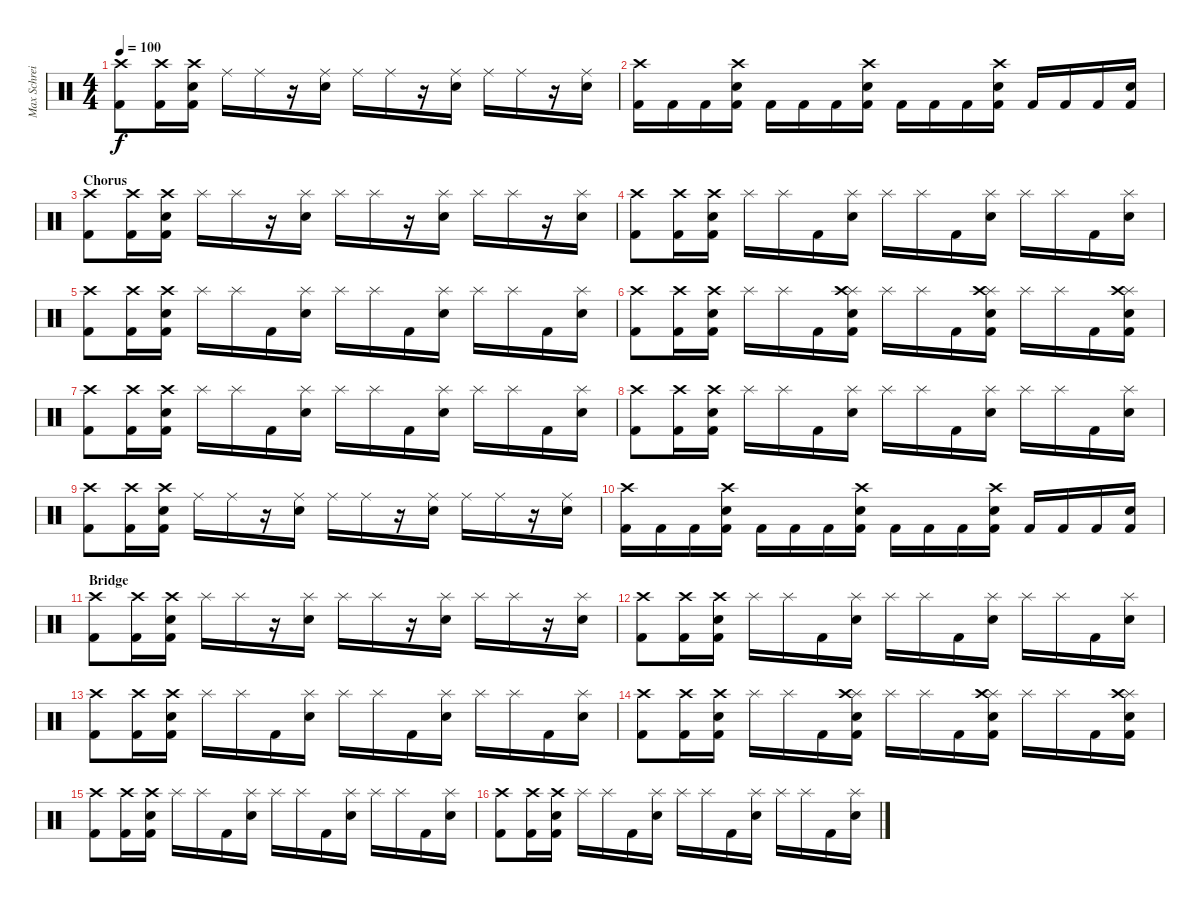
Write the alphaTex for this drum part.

\track ("Max Schreiber " "Max Schrei") {instrument percussion}
\staff {score}
\articulation defaults
\ts (4 4)
\tempo 100
\clef neutral
\ks c
("Crash high (hit)" "Kick (hit) 2").8{dy f} ("Crash high (hit)" "Kick (hit) 2").16 ("Crash high (hit)" "Electric Snare (hit)" "Kick (hit) 2").16 "Ride (middle)".16 "Ride (middle)".16 r.16 ("Ride (middle)" "Electric Snare (hit)").16 "Ride (middle)".16 "Ride (middle)".16 r.16 ("Ride (middle)" "Electric Snare (hit)").16 "Ride (middle)".16 "Ride (middle)".16 r.16 ("Ride (middle)" "Electric Snare (hit)").16 |
("Crash high (hit)" "Kick (hit) 2").16 "Kick (hit) 2".16 "Kick (hit) 2".16 ("Crash high (hit)" "Electric Snare (hit)" "Kick (hit) 2").16 "Kick (hit) 2".16 "Kick (hit) 2".16 "Kick (hit) 2".16 ("Crash high (hit)" "Electric Snare (hit)" "Kick (hit) 2").16 "Kick (hit) 2".16 "Kick (hit) 2".16 "Kick (hit) 2".16 ("Crash high (hit)" "Electric Snare (hit)" "Kick (hit) 2").16 "Kick (hit) 2".16 "Kick (hit) 2".16 "Kick (hit) 2".16 ("Electric Snare (hit)" "Kick (hit) 2").16 |
\section ("" "Chorus")
("Crash high (hit)" "Kick (hit) 2").8 ("Crash high (hit)" "Kick (hit) 2").16 ("Crash high (hit)" "Electric Snare (hit)" "Kick (hit) 2").16 "Splash (hit)".16 "Splash (hit)".16 r.16 ("Splash (hit)" "Electric Snare (hit)").16 "Splash (hit)".16 "Splash (hit)".16 r.16 ("Splash (hit)" "Electric Snare (hit)").16 "Splash (hit)".16 "Splash (hit)".16 r.16 ("Splash (hit)" "Electric Snare (hit)").16 |
("Crash high (hit)" "Kick (hit) 2").8 ("Crash high (hit)" "Kick (hit) 2").16 ("Crash high (hit)" "Electric Snare (hit)" "Kick (hit) 2").16 "Splash (hit)".16 "Splash (hit)".16 "Kick (hit) 2".16 ("Splash (hit)" "Electric Snare (hit)").16 "Splash (hit)".16 "Splash (hit)".16 "Kick (hit) 2".16 ("Splash (hit)" "Electric Snare (hit)").16 "Splash (hit)".16 "Splash (hit)".16 "Kick (hit) 2".16 ("Splash (hit)" "Electric Snare (hit)").16 |
("Crash high (hit)" "Kick (hit) 2").8 ("Crash high (hit)" "Kick (hit) 2").16 ("Crash high (hit)" "Electric Snare (hit)" "Kick (hit) 2").16 "Splash (hit)".16 "Splash (hit)".16 "Kick (hit) 2".16 ("Splash (hit)" "Electric Snare (hit)").16 "Splash (hit)".16 "Splash (hit)".16 "Kick (hit) 2".16 ("Splash (hit)" "Electric Snare (hit)").16 "Splash (hit)".16 "Splash (hit)".16 "Kick (hit) 2".16 ("Splash (hit)" "Electric Snare (hit)").16 |
("Crash high (hit)" "Kick (hit) 2").8 ("Crash high (hit)" "Kick (hit) 2").16 ("Crash high (hit)" "Electric Snare (hit)" "Kick (hit) 2").16 "Splash (hit)".16 "Splash (hit)".16 "Kick (hit) 2".16 ("Splash (hit)" "Crash high (hit)" "Electric Snare (hit)" "Kick (hit) 2").16 "Splash (hit)".16 "Splash (hit)".16 "Kick (hit) 2".16 ("Splash (hit)" "Crash high (hit)" "Electric Snare (hit)" "Kick (hit) 2").16 "Splash (hit)".16 "Splash (hit)".16 "Kick (hit) 2".16 ("Splash (hit)" "Crash high (hit)" "Electric Snare (hit)" "Kick (hit) 2").16 |
("Crash high (hit)" "Kick (hit) 2").8 ("Crash high (hit)" "Kick (hit) 2").16 ("Crash high (hit)" "Electric Snare (hit)" "Kick (hit) 2").16 "Splash (hit)".16 "Splash (hit)".16 "Kick (hit) 2".16 ("Splash (hit)" "Electric Snare (hit)").16 "Splash (hit)".16 "Splash (hit)".16 "Kick (hit) 2".16 ("Splash (hit)" "Electric Snare (hit)").16 "Splash (hit)".16 "Splash (hit)".16 "Kick (hit) 2".16 ("Splash (hit)" "Electric Snare (hit)").16 |
("Crash high (hit)" "Kick (hit) 2").8 ("Crash high (hit)" "Kick (hit) 2").16 ("Crash high (hit)" "Electric Snare (hit)" "Kick (hit) 2").16 "Splash (hit)".16 "Splash (hit)".16 "Kick (hit) 2".16 ("Splash (hit)" "Electric Snare (hit)").16 "Splash (hit)".16 "Splash (hit)".16 "Kick (hit) 2".16 ("Splash (hit)" "Electric Snare (hit)").16 "Splash (hit)".16 "Splash (hit)".16 "Kick (hit) 2".16 ("Splash (hit)" "Electric Snare (hit)").16 |
("Crash high (hit)" "Kick (hit) 2").8 ("Crash high (hit)" "Kick (hit) 2").16 ("Crash high (hit)" "Electric Snare (hit)" "Kick (hit) 2").16 "Ride (middle)".16 "Ride (middle)".16 r.16 ("Ride (middle)" "Electric Snare (hit)").16 "Ride (middle)".16 "Ride (middle)".16 r.16 ("Ride (middle)" "Electric Snare (hit)").16 "Ride (middle)".16 "Ride (middle)".16 r.16 ("Ride (middle)" "Electric Snare (hit)").16 |
("Crash high (hit)" "Kick (hit) 2").16 "Kick (hit) 2".16 "Kick (hit) 2".16 ("Crash high (hit)" "Electric Snare (hit)" "Kick (hit) 2").16 "Kick (hit) 2".16 "Kick (hit) 2".16 "Kick (hit) 2".16 ("Crash high (hit)" "Electric Snare (hit)" "Kick (hit) 2").16 "Kick (hit) 2".16 "Kick (hit) 2".16 "Kick (hit) 2".16 ("Crash high (hit)" "Electric Snare (hit)" "Kick (hit) 2").16 "Kick (hit) 2".16 "Kick (hit) 2".16 "Kick (hit) 2".16 ("Electric Snare (hit)" "Kick (hit) 2").16 |
\section ("" "Bridge")
("Crash high (hit)" "Kick (hit) 2").8 ("Crash high (hit)" "Kick (hit) 2").16 ("Crash high (hit)" "Electric Snare (hit)" "Kick (hit) 2").16 "Splash (hit)".16 "Splash (hit)".16 r.16 ("Splash (hit)" "Electric Snare (hit)").16 "Splash (hit)".16 "Splash (hit)".16 r.16 ("Splash (hit)" "Electric Snare (hit)").16 "Splash (hit)".16 "Splash (hit)".16 r.16 ("Splash (hit)" "Electric Snare (hit)").16 |
("Crash high (hit)" "Kick (hit) 2").8 ("Crash high (hit)" "Kick (hit) 2").16 ("Crash high (hit)" "Electric Snare (hit)" "Kick (hit) 2").16 "Splash (hit)".16 "Splash (hit)".16 "Kick (hit) 2".16 ("Splash (hit)" "Electric Snare (hit)").16 "Splash (hit)".16 "Splash (hit)".16 "Kick (hit) 2".16 ("Splash (hit)" "Electric Snare (hit)").16 "Splash (hit)".16 "Splash (hit)".16 "Kick (hit) 2".16 ("Splash (hit)" "Electric Snare (hit)").16 |
("Crash high (hit)" "Kick (hit) 2").8 ("Crash high (hit)" "Kick (hit) 2").16 ("Crash high (hit)" "Electric Snare (hit)" "Kick (hit) 2").16 "Splash (hit)".16 "Splash (hit)".16 "Kick (hit) 2".16 ("Splash (hit)" "Electric Snare (hit)").16 "Splash (hit)".16 "Splash (hit)".16 "Kick (hit) 2".16 ("Splash (hit)" "Electric Snare (hit)").16 "Splash (hit)".16 "Splash (hit)".16 "Kick (hit) 2".16 ("Splash (hit)" "Electric Snare (hit)").16 |
("Crash high (hit)" "Kick (hit) 2").8 ("Crash high (hit)" "Kick (hit) 2").16 ("Crash high (hit)" "Electric Snare (hit)" "Kick (hit) 2").16 "Splash (hit)".16 "Splash (hit)".16 "Kick (hit) 2".16 ("Splash (hit)" "Crash high (hit)" "Electric Snare (hit)" "Kick (hit) 2").16 "Splash (hit)".16 "Splash (hit)".16 "Kick (hit) 2".16 ("Splash (hit)" "Crash high (hit)" "Electric Snare (hit)" "Kick (hit) 2").16 "Splash (hit)".16 "Splash (hit)".16 "Kick (hit) 2".16 ("Splash (hit)" "Crash high (hit)" "Electric Snare (hit)" "Kick (hit) 2").16 |
("Crash high (hit)" "Kick (hit) 2").8 ("Crash high (hit)" "Kick (hit) 2").16 ("Crash high (hit)" "Electric Snare (hit)" "Kick (hit) 2").16 "Splash (hit)".16 "Splash (hit)".16 "Kick (hit) 2".16 ("Splash (hit)" "Electric Snare (hit)").16 "Splash (hit)".16 "Splash (hit)".16 "Kick (hit) 2".16 ("Splash (hit)" "Electric Snare (hit)").16 "Splash (hit)".16 "Splash (hit)".16 "Kick (hit) 2".16 ("Splash (hit)" "Electric Snare (hit)").16 |
("Crash high (hit)" "Kick (hit) 2").8 ("Crash high (hit)" "Kick (hit) 2").16 ("Crash high (hit)" "Electric Snare (hit)" "Kick (hit) 2").16 "Splash (hit)".16 "Splash (hit)".16 "Kick (hit) 2".16 ("Splash (hit)" "Electric Snare (hit)").16 "Splash (hit)".16 "Splash (hit)".16 "Kick (hit) 2".16 ("Splash (hit)" "Electric Snare (hit)").16 "Splash (hit)".16 "Splash (hit)".16 "Kick (hit) 2".16 ("Splash (hit)" "Electric Snare (hit)").16
